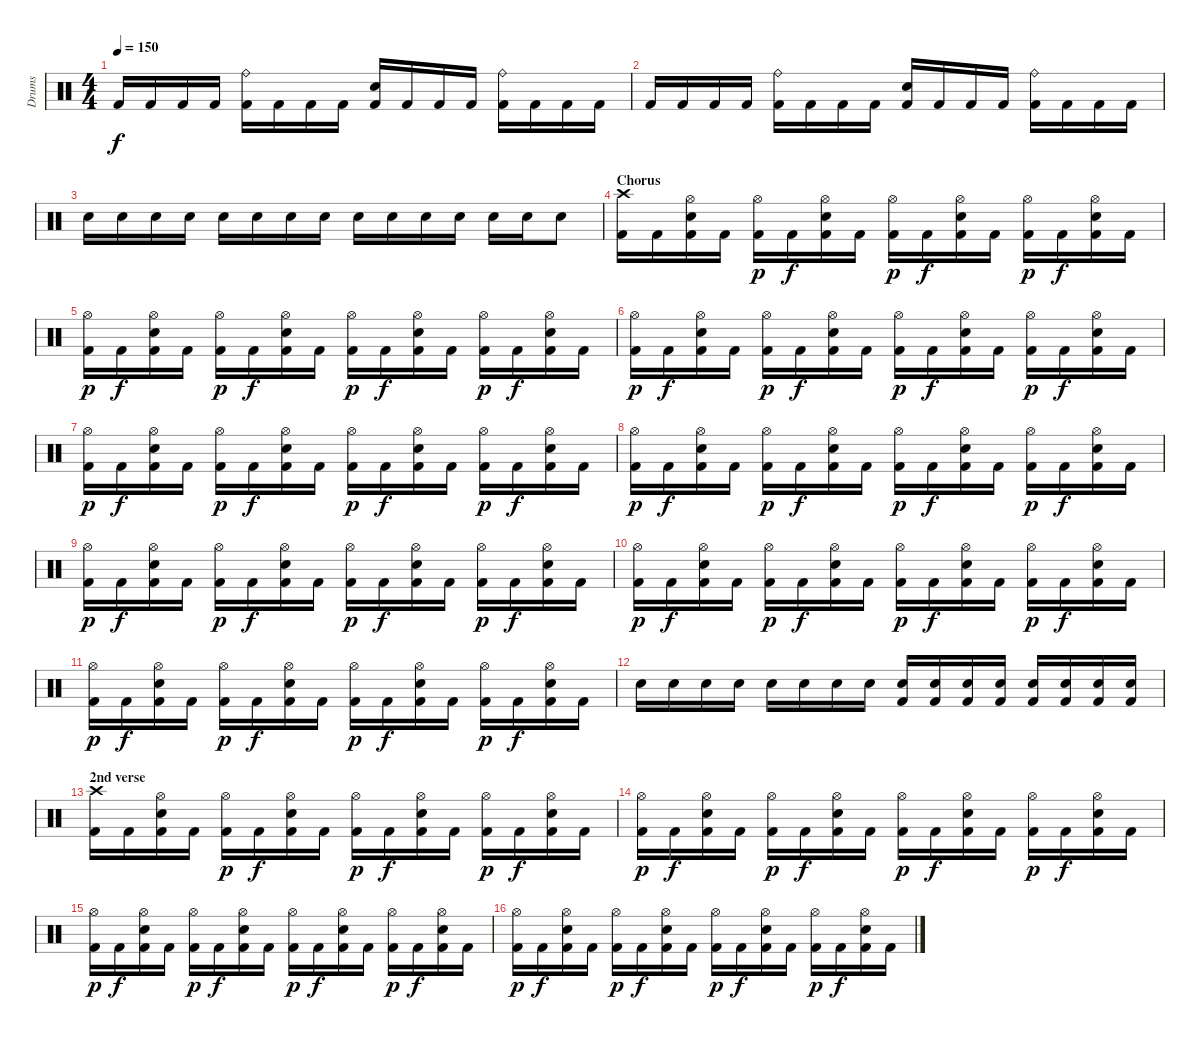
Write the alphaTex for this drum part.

\track ("Drums" "Drums") {instrument percussion}
\staff {score}
\articulation defaults
\ts (4 4)
\tempo 150
\clef neutral
\ks c "Kick (hit) 2".16{dy f} "Kick (hit) 2".16 "Kick (hit) 2".16 "Kick (hit) 2".16
("Ride (bell)" "Kick (hit) 2").16 "Kick (hit) 2".16 "Kick (hit) 2".16 "Kick (hit) 2".16 ("Snare (hit) 2" "Kick (hit) 2").16 "Kick (hit) 2".16 "Kick (hit) 2".16 "Kick (hit) 2".16 ("Ride (bell)" "Kick (hit) 2").16 "Kick (hit) 2".16 "Kick (hit) 2".16 "Kick (hit) 2".16 |
"Kick (hit) 2".16 "Kick (hit) 2".16 "Kick (hit) 2".16 "Kick (hit) 2".16 ("Ride (bell)" "Kick (hit) 2").16 "Kick (hit) 2".16 "Kick (hit) 2".16 "Kick (hit) 2".16 ("Snare (hit) 2" "Kick (hit) 2").16 "Kick (hit) 2".16 "Kick (hit) 2".16 "Kick (hit) 2".16 ("Ride (bell)" "Kick (hit) 2").16 "Kick (hit) 2".16 "Kick (hit) 2".16 "Kick (hit) 2".16 |
"Snare (hit) 2".16 "Snare (hit) 2".16 "Snare (hit) 2".16 "Snare (hit) 2".16 "Snare (hit) 2".16 "Snare (hit) 2".16 "Snare (hit) 2".16 "Snare (hit) 2".16 "Snare (hit) 2".16 "Snare (hit) 2".16 "Snare (hit) 2".16 "Snare (hit) 2".16 "Snare (hit) 2".16 "Snare (hit) 2".16 "Snare (hit) 2".8 |
\section ("" "Chorus")
("Crash high (hit)" "Kick (hit) 2").16 "Kick (hit) 2".16 ("Hi-Hat (open)" "Snare (hit) 2" "Kick (hit) 2").16 "Kick (hit) 2".16 ("Hi-Hat (open)" "Kick (hit) 2").16{dy p} "Kick (hit) 2".16{dy f} ("Hi-Hat (open)" "Snare (hit) 2" "Kick (hit) 2").16 "Kick (hit) 2".16 ("Hi-Hat (open)" "Kick (hit) 2").16{dy p} "Kick (hit) 2".16{dy f} ("Hi-Hat (open)" "Snare (hit) 2" "Kick (hit) 2").16 "Kick (hit) 2".16 ("Hi-Hat (open)" "Kick (hit) 2").16{dy p} "Kick (hit) 2".16{dy f} ("Hi-Hat (open)" "Snare (hit) 2" "Kick (hit) 2").16 "Kick (hit) 2".16 |
("Hi-Hat (open)" "Kick (hit) 2").16{dy p} "Kick (hit) 2".16{dy f} ("Hi-Hat (open)" "Snare (hit) 2" "Kick (hit) 2").16 "Kick (hit) 2".16 ("Hi-Hat (open)" "Kick (hit) 2").16{dy p} "Kick (hit) 2".16{dy f} ("Hi-Hat (open)" "Snare (hit) 2" "Kick (hit) 2").16 "Kick (hit) 2".16 ("Hi-Hat (open)" "Kick (hit) 2").16{dy p} "Kick (hit) 2".16{dy f} ("Hi-Hat (open)" "Snare (hit) 2" "Kick (hit) 2").16 "Kick (hit) 2".16 ("Hi-Hat (open)" "Kick (hit) 2").16{dy p} "Kick (hit) 2".16{dy f} ("Hi-Hat (open)" "Snare (hit) 2" "Kick (hit) 2").16 "Kick (hit) 2".16 |
("Hi-Hat (open)" "Kick (hit) 2").16{dy p} "Kick (hit) 2".16{dy f} ("Hi-Hat (open)" "Snare (hit) 2" "Kick (hit) 2").16 "Kick (hit) 2".16 ("Hi-Hat (open)" "Kick (hit) 2").16{dy p} "Kick (hit) 2".16{dy f} ("Hi-Hat (open)" "Snare (hit) 2" "Kick (hit) 2").16 "Kick (hit) 2".16 ("Hi-Hat (open)" "Kick (hit) 2").16{dy p} "Kick (hit) 2".16{dy f} ("Hi-Hat (open)" "Snare (hit) 2" "Kick (hit) 2").16 "Kick (hit) 2".16 ("Hi-Hat (open)" "Kick (hit) 2").16{dy p} "Kick (hit) 2".16{dy f} ("Hi-Hat (open)" "Snare (hit) 2" "Kick (hit) 2").16 "Kick (hit) 2".16 |
("Hi-Hat (open)" "Kick (hit) 2").16{dy p} "Kick (hit) 2".16{dy f} ("Hi-Hat (open)" "Snare (hit) 2" "Kick (hit) 2").16 "Kick (hit) 2".16 ("Hi-Hat (open)" "Kick (hit) 2").16{dy p} "Kick (hit) 2".16{dy f} ("Hi-Hat (open)" "Snare (hit) 2" "Kick (hit) 2").16 "Kick (hit) 2".16 ("Hi-Hat (open)" "Kick (hit) 2").16{dy p} "Kick (hit) 2".16{dy f} ("Hi-Hat (open)" "Snare (hit) 2" "Kick (hit) 2").16 "Kick (hit) 2".16 ("Hi-Hat (open)" "Kick (hit) 2").16{dy p} "Kick (hit) 2".16{dy f} ("Hi-Hat (open)" "Snare (hit) 2" "Kick (hit) 2").16 "Kick (hit) 2".16 |
("Hi-Hat (open)" "Kick (hit) 2").16{dy p} "Kick (hit) 2".16{dy f} ("Hi-Hat (open)" "Snare (hit) 2" "Kick (hit) 2").16 "Kick (hit) 2".16 ("Hi-Hat (open)" "Kick (hit) 2").16{dy p} "Kick (hit) 2".16{dy f} ("Hi-Hat (open)" "Snare (hit) 2" "Kick (hit) 2").16 "Kick (hit) 2".16 ("Hi-Hat (open)" "Kick (hit) 2").16{dy p} "Kick (hit) 2".16{dy f} ("Hi-Hat (open)" "Snare (hit) 2" "Kick (hit) 2").16 "Kick (hit) 2".16 ("Hi-Hat (open)" "Kick (hit) 2").16{dy p} "Kick (hit) 2".16{dy f} ("Hi-Hat (open)" "Snare (hit) 2" "Kick (hit) 2").16 "Kick (hit) 2".16 |
("Hi-Hat (open)" "Kick (hit) 2").16{dy p} "Kick (hit) 2".16{dy f} ("Hi-Hat (open)" "Snare (hit) 2" "Kick (hit) 2").16 "Kick (hit) 2".16 ("Hi-Hat (open)" "Kick (hit) 2").16{dy p} "Kick (hit) 2".16{dy f} ("Hi-Hat (open)" "Snare (hit) 2" "Kick (hit) 2").16 "Kick (hit) 2".16 ("Hi-Hat (open)" "Kick (hit) 2").16{dy p} "Kick (hit) 2".16{dy f} ("Hi-Hat (open)" "Snare (hit) 2" "Kick (hit) 2").16 "Kick (hit) 2".16 ("Hi-Hat (open)" "Kick (hit) 2").16{dy p} "Kick (hit) 2".16{dy f} ("Hi-Hat (open)" "Snare (hit) 2" "Kick (hit) 2").16 "Kick (hit) 2".16 |
("Hi-Hat (open)" "Kick (hit) 2").16{dy p} "Kick (hit) 2".16{dy f} ("Hi-Hat (open)" "Snare (hit) 2" "Kick (hit) 2").16 "Kick (hit) 2".16 ("Hi-Hat (open)" "Kick (hit) 2").16{dy p} "Kick (hit) 2".16{dy f} ("Hi-Hat (open)" "Snare (hit) 2" "Kick (hit) 2").16 "Kick (hit) 2".16 ("Hi-Hat (open)" "Kick (hit) 2").16{dy p} "Kick (hit) 2".16{dy f} ("Hi-Hat (open)" "Snare (hit) 2" "Kick (hit) 2").16 "Kick (hit) 2".16 ("Hi-Hat (open)" "Kick (hit) 2").16{dy p} "Kick (hit) 2".16{dy f} ("Hi-Hat (open)" "Snare (hit) 2" "Kick (hit) 2").16 "Kick (hit) 2".16 |
("Hi-Hat (open)" "Kick (hit) 2").16{dy p} "Kick (hit) 2".16{dy f} ("Hi-Hat (open)" "Snare (hit) 2" "Kick (hit) 2").16 "Kick (hit) 2".16 ("Hi-Hat (open)" "Kick (hit) 2").16{dy p} "Kick (hit) 2".16{dy f} ("Hi-Hat (open)" "Snare (hit) 2" "Kick (hit) 2").16 "Kick (hit) 2".16 ("Hi-Hat (open)" "Kick (hit) 2").16{dy p} "Kick (hit) 2".16{dy f} ("Hi-Hat (open)" "Snare (hit) 2" "Kick (hit) 2").16 "Kick (hit) 2".16 ("Hi-Hat (open)" "Kick (hit) 2").16{dy p} "Kick (hit) 2".16{dy f} ("Hi-Hat (open)" "Snare (hit) 2" "Kick (hit) 2").16 "Kick (hit) 2".16 |
"Snare (hit) 2".16 "Snare (hit) 2".16 "Snare (hit) 2".16 "Snare (hit) 2".16 "Snare (hit) 2".16 "Snare (hit) 2".16 "Snare (hit) 2".16 "Snare (hit) 2".16 ("Snare (hit) 2" "Kick (hit) 2").16 ("Snare (hit) 2" "Kick (hit) 2").16 ("Snare (hit) 2" "Kick (hit) 2").16 ("Snare (hit) 2" "Kick (hit) 2").16 ("Snare (hit) 2" "Kick (hit) 2").16 ("Snare (hit) 2" "Kick (hit) 2").16 ("Snare (hit) 2" "Kick (hit) 2").16 ("Snare (hit) 2" "Kick (hit) 2").16 |
\section ("" "2nd verse")
("Crash high (hit)" "Kick (hit) 2").16 "Kick (hit) 2".16 ("Hi-Hat (open)" "Snare (hit) 2" "Kick (hit) 2").16 "Kick (hit) 2".16 ("Hi-Hat (open)" "Kick (hit) 2").16{dy p} "Kick (hit) 2".16{dy f} ("Hi-Hat (open)" "Snare (hit) 2" "Kick (hit) 2").16 "Kick (hit) 2".16 ("Hi-Hat (open)" "Kick (hit) 2").16{dy p} "Kick (hit) 2".16{dy f} ("Hi-Hat (open)" "Snare (hit) 2" "Kick (hit) 2").16 "Kick (hit) 2".16 ("Hi-Hat (open)" "Kick (hit) 2").16{dy p} "Kick (hit) 2".16{dy f} ("Hi-Hat (open)" "Snare (hit) 2" "Kick (hit) 2").16 "Kick (hit) 2".16 |
("Hi-Hat (open)" "Kick (hit) 2").16{dy p} "Kick (hit) 2".16{dy f} ("Hi-Hat (open)" "Snare (hit) 2" "Kick (hit) 2").16 "Kick (hit) 2".16 ("Hi-Hat (open)" "Kick (hit) 2").16{dy p} "Kick (hit) 2".16{dy f} ("Hi-Hat (open)" "Snare (hit) 2" "Kick (hit) 2").16 "Kick (hit) 2".16 ("Hi-Hat (open)" "Kick (hit) 2").16{dy p} "Kick (hit) 2".16{dy f} ("Hi-Hat (open)" "Snare (hit) 2" "Kick (hit) 2").16 "Kick (hit) 2".16 ("Hi-Hat (open)" "Kick (hit) 2").16{dy p} "Kick (hit) 2".16{dy f} ("Hi-Hat (open)" "Snare (hit) 2" "Kick (hit) 2").16 "Kick (hit) 2".16 |
("Hi-Hat (open)" "Kick (hit) 2").16{dy p} "Kick (hit) 2".16{dy f} ("Hi-Hat (open)" "Snare (hit) 2" "Kick (hit) 2").16 "Kick (hit) 2".16 ("Hi-Hat (open)" "Kick (hit) 2").16{dy p} "Kick (hit) 2".16{dy f} ("Hi-Hat (open)" "Snare (hit) 2" "Kick (hit) 2").16 "Kick (hit) 2".16 ("Hi-Hat (open)" "Kick (hit) 2").16{dy p} "Kick (hit) 2".16{dy f} ("Hi-Hat (open)" "Snare (hit) 2" "Kick (hit) 2").16 "Kick (hit) 2".16 ("Hi-Hat (open)" "Kick (hit) 2").16{dy p} "Kick (hit) 2".16{dy f} ("Hi-Hat (open)" "Snare (hit) 2" "Kick (hit) 2").16 "Kick (hit) 2".16 |
("Hi-Hat (open)" "Kick (hit) 2").16{dy p} "Kick (hit) 2".16{dy f} ("Hi-Hat (open)" "Snare (hit) 2" "Kick (hit) 2").16 "Kick (hit) 2".16 ("Hi-Hat (open)" "Kick (hit) 2").16{dy p} "Kick (hit) 2".16{dy f} ("Hi-Hat (open)" "Snare (hit) 2" "Kick (hit) 2").16 "Kick (hit) 2".16 ("Hi-Hat (open)" "Kick (hit) 2").16{dy p} "Kick (hit) 2".16{dy f} ("Hi-Hat (open)" "Snare (hit) 2" "Kick (hit) 2").16 "Kick (hit) 2".16 ("Hi-Hat (open)" "Kick (hit) 2").16{dy p} "Kick (hit) 2".16{dy f} ("Hi-Hat (open)" "Snare (hit) 2" "Kick (hit) 2").16 "Kick (hit) 2".16
